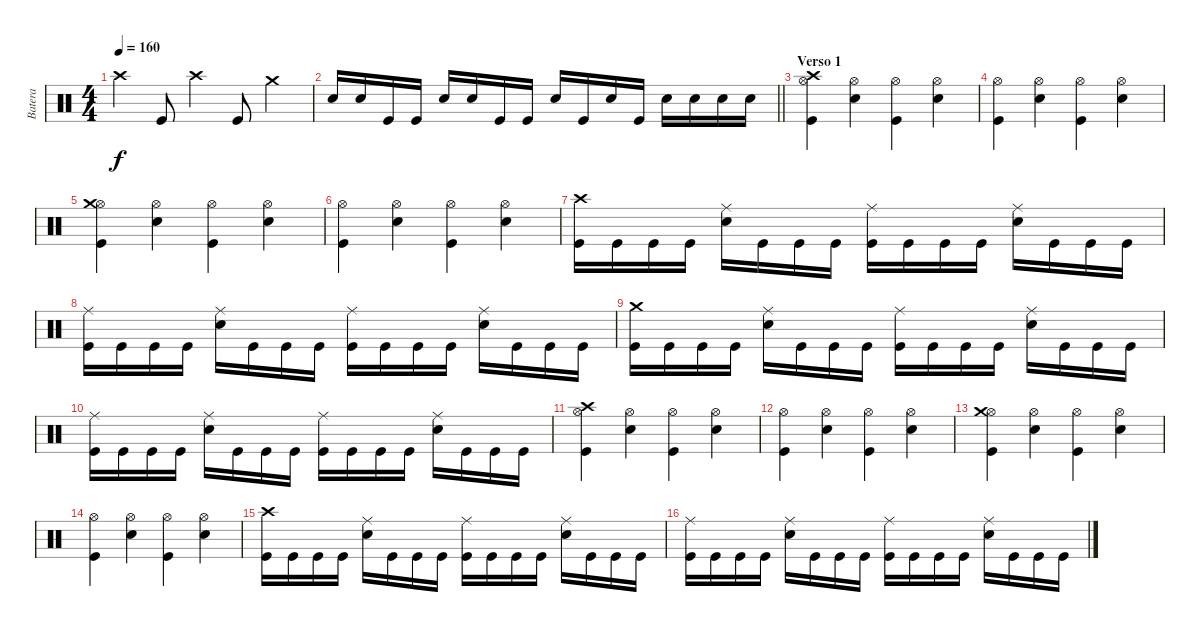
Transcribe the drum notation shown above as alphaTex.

\track ("Batera" "Batera") {instrument percussion}
\staff {score}
\articulation defaults
\ts (4 4)
\tempo 160
\clef neutral
\ks c "Crash high (hit)".4{dy f} "Kick (hit)".8 "Crash high (hit)".4 "Kick (hit)".8 "Crash medium (hit)".4
|
\barLineRight lightlight "Snare (hit) 2".16 "Snare (hit) 2".16 "Kick (hit)".16 "Kick (hit)".16 "Snare (hit) 2".16 "Snare (hit) 2".16 "Kick (hit)".16 "Kick (hit)".16 "Snare (hit) 2".16 "Kick (hit)".16 "Snare (hit) 2".16 "Kick (hit)".16 "Snare (hit) 2".16 "Snare (hit) 2".16 "Snare (hit) 2".16 "Snare (hit) 2".16
|
\section ("" "Verso 1")
("Hi-Hat (open)" "Kick (hit)" "Crash high (hit)").4 ("Hi-Hat (open)" "Snare (hit) 2").4 ("Hi-Hat (open)" "Kick (hit)").4 ("Hi-Hat (open)" "Snare (hit) 2").4 |
("Hi-Hat (open)" "Kick (hit)").4 ("Hi-Hat (open)" "Snare (hit) 2").4 ("Hi-Hat (open)" "Kick (hit)").4 ("Hi-Hat (open)" "Snare (hit) 2").4 |
("Hi-Hat (open)" "Kick (hit)" "Crash medium (hit)").4 ("Hi-Hat (open)" "Snare (hit) 2").4 ("Hi-Hat (open)" "Kick (hit)").4 ("Hi-Hat (open)" "Snare (hit) 2").4 |
("Hi-Hat (open)" "Kick (hit)").4 ("Hi-Hat (open)" "Snare (hit) 2").4 ("Hi-Hat (open)" "Kick (hit)").4 ("Hi-Hat (open)" "Snare (hit) 2").4 |
("Kick (hit)" "Crash high (hit)").16 "Kick (hit)".16 "Kick (hit)".16 "Kick (hit)".16 ("Snare (hit) 2" "Ride (middle)").16 "Kick (hit)".16 "Kick (hit)".16 "Kick (hit)".16 ("Kick (hit)" "Ride (middle)").16 "Kick (hit)".16 "Kick (hit)".16 "Kick (hit)".16 ("Snare (hit) 2" "Ride (middle)").16 "Kick (hit)".16 "Kick (hit)".16 "Kick (hit)".16 |
("Kick (hit)" "Ride (middle)").16 "Kick (hit)".16 "Kick (hit)".16 "Kick (hit)".16 ("Snare (hit) 2" "Ride (middle)").16 "Kick (hit)".16 "Kick (hit)".16 "Kick (hit)".16 ("Kick (hit)" "Ride (middle)").16 "Kick (hit)".16 "Kick (hit)".16 "Kick (hit)".16 ("Snare (hit) 2" "Ride (middle)").16 "Kick (hit)".16 "Kick (hit)".16 "Kick (hit)".16 |
("Kick (hit)" "Crash medium (hit)").16 "Kick (hit)".16 "Kick (hit)".16 "Kick (hit)".16 ("Snare (hit) 2" "Ride (middle)").16 "Kick (hit)".16 "Kick (hit)".16 "Kick (hit)".16 ("Kick (hit)" "Ride (middle)").16 "Kick (hit)".16 "Kick (hit)".16 "Kick (hit)".16 ("Snare (hit) 2" "Ride (middle)").16 "Kick (hit)".16 "Kick (hit)".16 "Kick (hit)".16 |
("Kick (hit)" "Ride (middle)").16 "Kick (hit)".16 "Kick (hit)".16 "Kick (hit)".16 ("Snare (hit) 2" "Ride (middle)").16 "Kick (hit)".16 "Kick (hit)".16 "Kick (hit)".16 ("Kick (hit)" "Ride (middle)").16 "Kick (hit)".16 "Kick (hit)".16 "Kick (hit)".16 ("Snare (hit) 2" "Ride (middle)").16 "Kick (hit)".16 "Kick (hit)".16 "Kick (hit)".16 |
("Hi-Hat (open)" "Kick (hit)" "Crash high (hit)").4 ("Hi-Hat (open)" "Snare (hit) 2").4 ("Hi-Hat (open)" "Kick (hit)").4 ("Hi-Hat (open)" "Snare (hit) 2").4 |
("Hi-Hat (open)" "Kick (hit)").4 ("Hi-Hat (open)" "Snare (hit) 2").4 ("Hi-Hat (open)" "Kick (hit)").4 ("Hi-Hat (open)" "Snare (hit) 2").4 |
("Hi-Hat (open)" "Kick (hit)" "Crash medium (hit)").4 ("Hi-Hat (open)" "Snare (hit) 2").4 ("Hi-Hat (open)" "Kick (hit)").4 ("Hi-Hat (open)" "Snare (hit) 2").4 |
("Hi-Hat (open)" "Kick (hit)").4 ("Hi-Hat (open)" "Snare (hit) 2").4 ("Hi-Hat (open)" "Kick (hit)").4 ("Hi-Hat (open)" "Snare (hit) 2").4 |
("Kick (hit)" "Crash high (hit)").16 "Kick (hit)".16 "Kick (hit)".16 "Kick (hit)".16 ("Snare (hit) 2" "Ride (middle)").16 "Kick (hit)".16 "Kick (hit)".16 "Kick (hit)".16 ("Kick (hit)" "Ride (middle)").16 "Kick (hit)".16 "Kick (hit)".16 "Kick (hit)".16 ("Snare (hit) 2" "Ride (middle)").16 "Kick (hit)".16 "Kick (hit)".16 "Kick (hit)".16 |
("Kick (hit)" "Ride (middle)").16 "Kick (hit)".16 "Kick (hit)".16 "Kick (hit)".16 ("Snare (hit) 2" "Ride (middle)").16 "Kick (hit)".16 "Kick (hit)".16 "Kick (hit)".16 ("Kick (hit)" "Ride (middle)").16 "Kick (hit)".16 "Kick (hit)".16 "Kick (hit)".16 ("Snare (hit) 2" "Ride (middle)").16 "Kick (hit)".16 "Kick (hit)".16 "Kick (hit)".16
